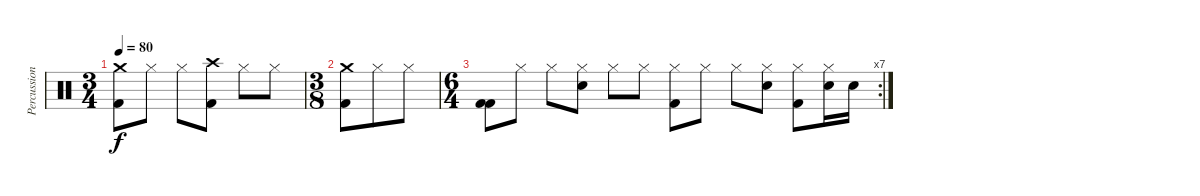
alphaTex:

\track ("Percussions" "Percussion") {instrument percussion}
\staff {score}
\articulation defaults
\ts (3 4)
\tempo 80
\clef neutral
\ks c
("Crash medium (hit)" "Kick (hit) 2").8{dy f} "Hi-Hat (closed)".8 "Hi-Hat (closed)".8 ("Crash high (hit)" "Kick (hit) 2").8 "Hi-Hat (closed)".8 "Hi-Hat (closed)".8 |
\ts (3 8)
("Crash medium (hit)" "Kick (hit) 2").8 "Hi-Hat (closed)".8 "Hi-Hat (closed)".8 |
\rc 7
\ts (6 4)
("Kick (hit) 2" "Kick (hit) 2").8 "Hi-Hat (closed)".8 "Hi-Hat (closed)".8 ("Hi-Hat (closed)" "Electric Snare (hit)").8 "Hi-Hat (closed)".8 "Hi-Hat (closed)".8 ("Hi-Hat (closed)" "Kick (hit) 2").8 "Hi-Hat (closed)".8 "Hi-Hat (closed)".8 ("Hi-Hat (closed)" "Electric Snare (hit)").8 ("Hi-Hat (closed)" "Kick (hit) 2").8 ("Hi-Hat (closed)" "Electric Snare (hit)").16 "Electric Snare (hit)".16
